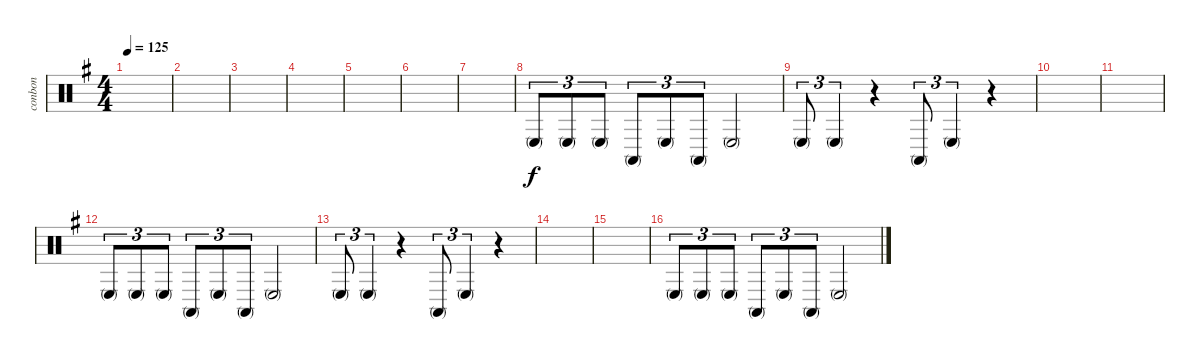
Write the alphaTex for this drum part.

\defaultSystemsLayout 4
\bracketExtendMode groupsimilarinstruments
\otherSystemsTrackNameOrientation horizontal
\track ("Bongos N Congas" "conbon") {instrument percussion}
\staff {score}
\articulation defaults
\ts (4 4)
\tempo 125
\clef neutral
\scale
0.474178
\ks g
|
\scale
0.262911 |
\scale
0.262911 |
\scale
0.333333 |
\scale
0.333333 |
\scale
0.333333 |
\scale
0.333333 |
\scale
0.333333 "Conga low (mute)"{acc forcenatural}.8{tu (3 2) beam Up} "Conga low (mute)"{acc forcenatural}.8{tu (3 2) beam Up} "Conga low (mute)"{acc forcenatural}.8{tu (3 2) beam Up} "Conga high (mute)"{acc forcenatural}.8{tu (3 2) beam Up} "Conga low (mute)"{acc forcenatural}.8{tu (3 2) beam Up} "Conga high (mute)"{acc forcenatural}.8{tu (3 2) beam Up} "Conga low (mute)"{acc forcenatural}.2{beam Up} |
"Conga low (mute)"{acc forcenatural}.8{tu (3 2) beam Up} "Conga low (mute)"{acc forcenatural}.4{tu (3 2) beam Up} r.4{beam Up} "Conga high (mute)"{acc forcenatural}.8{tu (3 2) beam Up} "Conga low (mute)"{acc forcenatural}.4{tu (3 2) beam Up} r.4{beam Up} |
\scale
0.333333 |
\scale
0.333333 |
\scale
0.333333 "Conga low (mute)"{acc forcenatural}.8{tu (3 2) beam Up} "Conga low (mute)"{acc forcenatural}.8{tu (3 2) beam Up} "Conga low (mute)"{acc forcenatural}.8{tu (3 2) beam Up} "Conga high (mute)"{acc forcenatural}.8{tu (3 2) beam Up} "Conga low (mute)"{acc forcenatural}.8{tu (3 2) beam Up} "Conga high (mute)"{acc forcenatural}.8{tu (3 2) beam Up} "Conga low (mute)"{acc forcenatural}.2{beam Up} |
\scale
0.333333 "Conga low (mute)"{acc forcenatural}.8{tu (3 2) beam Up} "Conga low (mute)"{acc forcenatural}.4{tu (3 2) beam Up} r.4{beam Up} "Conga high (mute)"{acc forcenatural}.8{tu (3 2) beam Up} "Conga low (mute)"{acc forcenatural}.4{tu (3 2) beam Up} r.4{beam Up} |
\scale
0.333333 |
\scale
0.333333 |
\scale
0.333333 "Conga low (mute)"{acc forcenatural}.8{tu (3 2) beam Up} "Conga low (mute)"{acc forcenatural}.8{tu (3 2) beam Up} "Conga low (mute)"{acc forcenatural}.8{tu (3 2) beam Up} "Conga high (mute)"{acc forcenatural}.8{tu (3 2) beam Up} "Conga low (mute)"{acc forcenatural}.8{tu (3 2) beam Up} "Conga high (mute)"{acc forcenatural}.8{tu (3 2) beam Up} "Conga low (mute)"{acc forcenatural}.2{beam Up}
